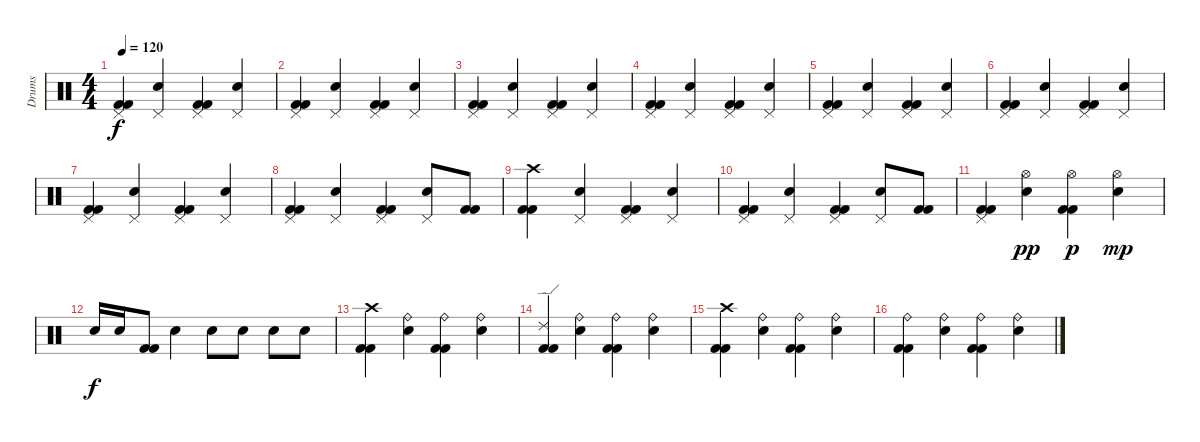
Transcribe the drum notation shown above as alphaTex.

\track ("Drums" "Drums") {instrument percussion}
\staff {score}
\articulation defaults
\ts (4 4)
\tempo 120
\clef neutral
\ks c
("Pedal Hi-Hat (hit)" "Kick (hit) 2" "Kick (hit) 2").4{dy f} ("Pedal Hi-Hat (hit)" "Snare (hit) 2").4 ("Pedal Hi-Hat (hit)" "Kick (hit) 2" "Kick (hit) 2").4 ("Pedal Hi-Hat (hit)" "Snare (hit) 2").4 |
("Pedal Hi-Hat (hit)" "Kick (hit) 2" "Kick (hit) 2").4 ("Pedal Hi-Hat (hit)" "Snare (hit) 2").4 ("Pedal Hi-Hat (hit)" "Kick (hit) 2" "Kick (hit) 2").4 ("Pedal Hi-Hat (hit)" "Snare (hit) 2").4 |
("Pedal Hi-Hat (hit)" "Kick (hit) 2" "Kick (hit) 2").4 ("Pedal Hi-Hat (hit)" "Snare (hit) 2").4 ("Pedal Hi-Hat (hit)" "Kick (hit) 2" "Kick (hit) 2").4 ("Pedal Hi-Hat (hit)" "Snare (hit) 2").4 |
("Pedal Hi-Hat (hit)" "Kick (hit) 2" "Kick (hit) 2").4 ("Pedal Hi-Hat (hit)" "Snare (hit) 2").4 ("Pedal Hi-Hat (hit)" "Kick (hit) 2" "Kick (hit) 2").4 ("Pedal Hi-Hat (hit)" "Snare (hit) 2").4 |
("Pedal Hi-Hat (hit)" "Kick (hit) 2" "Kick (hit) 2").4 ("Pedal Hi-Hat (hit)" "Snare (hit) 2").4 ("Pedal Hi-Hat (hit)" "Kick (hit) 2" "Kick (hit) 2").4 ("Pedal Hi-Hat (hit)" "Snare (hit) 2").4 |
("Pedal Hi-Hat (hit)" "Kick (hit) 2" "Kick (hit) 2").4 ("Pedal Hi-Hat (hit)" "Snare (hit) 2").4 ("Pedal Hi-Hat (hit)" "Kick (hit) 2" "Kick (hit) 2").4 ("Pedal Hi-Hat (hit)" "Snare (hit) 2").4 |
("Pedal Hi-Hat (hit)" "Kick (hit) 2" "Kick (hit) 2").4 ("Pedal Hi-Hat (hit)" "Snare (hit) 2").4 ("Pedal Hi-Hat (hit)" "Kick (hit) 2" "Kick (hit) 2").4 ("Pedal Hi-Hat (hit)" "Snare (hit) 2").4 |
("Pedal Hi-Hat (hit)" "Kick (hit) 2" "Kick (hit) 2").4 ("Pedal Hi-Hat (hit)" "Snare (hit) 2").4 ("Pedal Hi-Hat (hit)" "Kick (hit) 2" "Kick (hit) 2").4 ("Pedal Hi-Hat (hit)" "Snare (hit) 2").8 ("Kick (hit) 2" "Kick (hit) 2").8 |
("Crash high (hit)" "Kick (hit) 2" "Kick (hit) 2").4 ("Pedal Hi-Hat (hit)" "Snare (hit) 2").4 ("Pedal Hi-Hat (hit)" "Kick (hit) 2" "Kick (hit) 2").4 ("Pedal Hi-Hat (hit)" "Snare (hit) 2").4 |
("Pedal Hi-Hat (hit)" "Kick (hit) 2" "Kick (hit) 2").4 ("Pedal Hi-Hat (hit)" "Snare (hit) 2").4 ("Pedal Hi-Hat (hit)" "Kick (hit) 2" "Kick (hit) 2").4 ("Pedal Hi-Hat (hit)" "Snare (hit) 2").8 ("Kick (hit) 2" "Kick (hit) 2").8 |
("Pedal Hi-Hat (hit)" "Kick (hit) 2" "Kick (hit) 2").4 ("Hi-Hat (open)" "Snare (hit) 2").4{dy pp} ("Hi-Hat (open)" "Kick (hit) 2" "Kick (hit) 2").4{dy p} ("Hi-Hat (open)" "Snare (hit) 2").4{dy mp} |
"Snare (hit) 2".16{dy f} "Snare (hit) 2".16 ("Kick (hit) 2" "Kick (hit) 2").8 "Snare (hit) 2".4 "Snare (hit) 2".8 "Snare (hit) 2".8 "Snare (hit) 2".8 "Snare (hit) 2".8 |
("Crash high (hit)" "Kick (hit) 2" "Kick (hit) 2").4 ("Ride (bell)" "Snare (hit) 2").4 ("Ride (bell)" "Kick (hit) 2" "Kick (hit) 2").4 ("Ride (bell)" "Snare (hit) 2").4 |
("Ride (edge) 2" "Kick (hit) 2" "Kick (hit) 2").4 ("Ride (bell)" "Snare (hit) 2").4 ("Ride (bell)" "Kick (hit) 2" "Kick (hit) 2").4 ("Ride (bell)" "Snare (hit) 2").4 |
("Crash high (hit)" "Kick (hit) 2" "Kick (hit) 2").4 ("Ride (bell)" "Snare (hit) 2").4 ("Ride (bell)" "Kick (hit) 2" "Kick (hit) 2").4 ("Ride (bell)" "Snare (hit) 2").4 |
("Ride (bell)" "Kick (hit) 2" "Kick (hit) 2").4 ("Ride (bell)" "Snare (hit) 2").4 ("Ride (bell)" "Kick (hit) 2" "Kick (hit) 2").4 ("Ride (bell)" "Snare (hit) 2").4
